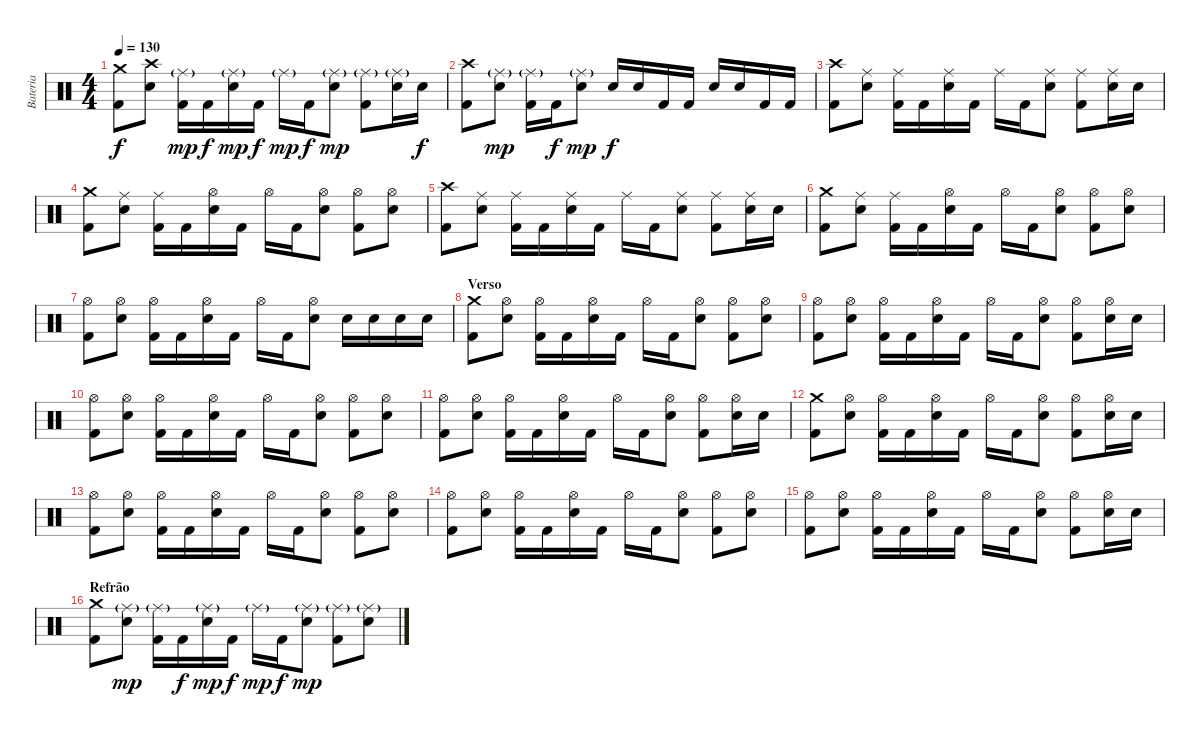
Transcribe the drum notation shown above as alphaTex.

\track ("Bateria" "Bateria") {instrument percussion}
\staff {score}
\articulation defaults
\ts (4 4)
\tempo 130
\clef neutral
\ks c
("Crash medium (hit)" "Kick (hit) 2").8{dy f} ("Crash high (hit)" "Electric Snare (hit)").8 ("Ride (middle)"{g} "Kick (hit) 2").16{dy mp} "Kick (hit) 2".16{dy f} ("Ride (middle)"{g} "Electric Snare (hit)").16{dy mp} "Kick (hit) 2".16{dy f} "Ride (middle)"{g}.16{dy mp} "Kick (hit) 2".16{dy f} ("Ride (middle)"{g} "Electric Snare (hit)").8{dy mp} ("Ride (middle)"{g} "Kick (hit) 2").8 ("Ride (middle)"{g} "Electric Snare (hit)").16 "Electric Snare (hit)".16{dy f} |
("Crash high (hit)" "Kick (hit) 2").8 ("Ride (middle)"{g} "Electric Snare (hit)").8{dy mp} ("Ride (middle)"{g} "Kick (hit) 2").16 "Kick (hit) 2".16{dy f} ("Ride (middle)"{g} "Electric Snare (hit)").8{dy mp} "Electric Snare (hit)".16{dy f} "Electric Snare (hit)".16 "Kick (hit) 2".16 "Kick (hit) 2".16 "Electric Snare (hit)".16 "Electric Snare (hit)".16 "Kick (hit) 2".16 "Kick (hit) 2".16 |
("Crash high (hit)" "Kick (hit) 2").8 ("Ride (middle)" "Electric Snare (hit)").8 ("Ride (middle)" "Kick (hit) 2").16 "Kick (hit) 2".16 ("Ride (middle)" "Electric Snare (hit)").16 "Kick (hit) 2".16 "Ride (middle)".16 "Kick (hit) 2".16 ("Ride (middle)" "Electric Snare (hit)").8 ("Ride (middle)" "Kick (hit) 2").8 ("Ride (middle)" "Electric Snare (hit)").16 "Electric Snare (hit)".16 |
("Crash medium (hit)" "Kick (hit) 2").8 ("Ride (middle)" "Electric Snare (hit)").8 ("Ride (middle)" "Kick (hit) 2").16 "Kick (hit) 2".16 ("Hi-Hat (open)" "Electric Snare (hit)").16 "Kick (hit) 2".16 "Hi-Hat (open)".16 "Kick (hit) 2".16 ("Hi-Hat (open)" "Electric Snare (hit)").8 ("Hi-Hat (open)" "Kick (hit) 2").8 ("Hi-Hat (open)" "Electric Snare (hit)").8 |
("Crash high (hit)" "Kick (hit) 2").8 ("Ride (middle)" "Electric Snare (hit)").8 ("Ride (middle)" "Kick (hit) 2").16 "Kick (hit) 2".16 ("Ride (middle)" "Electric Snare (hit)").16 "Kick (hit) 2".16 "Ride (middle)".16 "Kick (hit) 2".16 ("Ride (middle)" "Electric Snare (hit)").8 ("Ride (middle)" "Kick (hit) 2").8 ("Ride (middle)" "Electric Snare (hit)").16 "Electric Snare (hit)".16 |
("Crash medium (hit)" "Kick (hit) 2").8 ("Ride (middle)" "Electric Snare (hit)").8 ("Ride (middle)" "Kick (hit) 2").16 "Kick (hit) 2".16 ("Hi-Hat (open)" "Electric Snare (hit)").16 "Kick (hit) 2".16 "Hi-Hat (open)".16 "Kick (hit) 2".16 ("Hi-Hat (open)" "Electric Snare (hit)").8 ("Hi-Hat (open)" "Kick (hit) 2").8 ("Hi-Hat (open)" "Electric Snare (hit)").8 |
("Hi-Hat (open)" "Kick (hit) 2").8 ("Hi-Hat (open)" "Electric Snare (hit)").8 ("Hi-Hat (open)" "Kick (hit) 2").16 "Kick (hit) 2".16 ("Hi-Hat (open)" "Electric Snare (hit)").16 "Kick (hit) 2".16 "Hi-Hat (open)".16 "Kick (hit) 2".16 ("Hi-Hat (open)" "Electric Snare (hit)").8 "Electric Snare (hit)".16 "Electric Snare (hit)".16 "Electric Snare (hit)".16 "Electric Snare (hit)".16 |
\section ("" "Verso")
("Crash medium (hit)" "Kick (hit) 2").8 ("Hi-Hat (open)" "Electric Snare (hit)").8 ("Hi-Hat (open)" "Kick (hit) 2").16 "Kick (hit) 2".16 ("Hi-Hat (open)" "Electric Snare (hit)").16 "Kick (hit) 2".16 "Hi-Hat (open)".16 "Kick (hit) 2".16 ("Hi-Hat (open)" "Electric Snare (hit)").8 ("Hi-Hat (open)" "Kick (hit) 2").8 ("Hi-Hat (open)" "Electric Snare (hit)").8 |
("Hi-Hat (open)" "Kick (hit) 2").8 ("Hi-Hat (open)" "Electric Snare (hit)").8 ("Hi-Hat (open)" "Kick (hit) 2").16 "Kick (hit) 2".16 ("Hi-Hat (open)" "Electric Snare (hit)").16 "Kick (hit) 2".16 "Hi-Hat (open)".16 "Kick (hit) 2".16 ("Hi-Hat (open)" "Electric Snare (hit)").8 ("Hi-Hat (open)" "Kick (hit) 2").8 ("Hi-Hat (open)" "Electric Snare (hit)").16 "Electric Snare (hit)".16 |
("Hi-Hat (open)" "Kick (hit) 2").8 ("Hi-Hat (open)" "Electric Snare (hit)").8 ("Hi-Hat (open)" "Kick (hit) 2").16 "Kick (hit) 2".16 ("Hi-Hat (open)" "Electric Snare (hit)").16 "Kick (hit) 2".16 "Hi-Hat (open)".16 "Kick (hit) 2".16 ("Hi-Hat (open)" "Electric Snare (hit)").8 ("Hi-Hat (open)" "Kick (hit) 2").8 ("Hi-Hat (open)" "Electric Snare (hit)").8 |
("Hi-Hat (open)" "Kick (hit) 2").8 ("Hi-Hat (open)" "Electric Snare (hit)").8 ("Hi-Hat (open)" "Kick (hit) 2").16 "Kick (hit) 2".16 ("Hi-Hat (open)" "Electric Snare (hit)").16 "Kick (hit) 2".16 "Hi-Hat (open)".16 "Kick (hit) 2".16 ("Hi-Hat (open)" "Electric Snare (hit)").8 ("Hi-Hat (open)" "Kick (hit) 2").8 ("Hi-Hat (open)" "Electric Snare (hit)").16 "Electric Snare (hit)".16 |
("Crash medium (hit)" "Kick (hit) 2").8 ("Hi-Hat (open)" "Electric Snare (hit)").8 ("Hi-Hat (open)" "Kick (hit) 2").16 "Kick (hit) 2".16 ("Hi-Hat (open)" "Electric Snare (hit)").16 "Kick (hit) 2".16 "Hi-Hat (open)".16 "Kick (hit) 2".16 ("Hi-Hat (open)" "Electric Snare (hit)").8 ("Hi-Hat (open)" "Kick (hit) 2").8 ("Hi-Hat (open)" "Electric Snare (hit)").16 "Electric Snare (hit)".16 |
("Hi-Hat (open)" "Kick (hit) 2").8 ("Hi-Hat (open)" "Electric Snare (hit)").8 ("Hi-Hat (open)" "Kick (hit) 2").16 "Kick (hit) 2".16 ("Hi-Hat (open)" "Electric Snare (hit)").16 "Kick (hit) 2".16 "Hi-Hat (open)".16 "Kick (hit) 2".16 ("Hi-Hat (open)" "Electric Snare (hit)").8 ("Hi-Hat (open)" "Kick (hit) 2").8 ("Hi-Hat (open)" "Electric Snare (hit)").8 |
("Hi-Hat (open)" "Kick (hit) 2").8 ("Hi-Hat (open)" "Electric Snare (hit)").8 ("Hi-Hat (open)" "Kick (hit) 2").16 "Kick (hit) 2".16 ("Hi-Hat (open)" "Electric Snare (hit)").16 "Kick (hit) 2".16 "Hi-Hat (open)".16 "Kick (hit) 2".16 ("Hi-Hat (open)" "Electric Snare (hit)").8 ("Hi-Hat (open)" "Kick (hit) 2").8 ("Hi-Hat (open)" "Electric Snare (hit)").8 |
("Hi-Hat (open)" "Kick (hit) 2").8 ("Hi-Hat (open)" "Electric Snare (hit)").8 ("Hi-Hat (open)" "Kick (hit) 2").16 "Kick (hit) 2".16 ("Hi-Hat (open)" "Electric Snare (hit)").16 "Kick (hit) 2".16 "Hi-Hat (open)".16 "Kick (hit) 2".16 ("Hi-Hat (open)" "Electric Snare (hit)").8 ("Hi-Hat (open)" "Kick (hit) 2").8 ("Hi-Hat (open)" "Electric Snare (hit)").16 "Electric Snare (hit)".16 |
\section ("" "Refrão")
("Crash medium (hit)" "Kick (hit) 2").8 ("Ride (middle)"{g} "Electric Snare (hit)").8{dy mp} ("Ride (middle)"{g} "Kick (hit) 2").16 "Kick (hit) 2".16{dy f} ("Ride (middle)"{g} "Electric Snare (hit)").16{dy mp} "Kick (hit) 2".16{dy f} "Ride (middle)"{g}.16{dy mp} "Kick (hit) 2".16{dy f} ("Ride (middle)"{g} "Electric Snare (hit)").8{dy mp} ("Ride (middle)"{g} "Kick (hit) 2").8 ("Ride (middle)"{g} "Electric Snare (hit)").8
